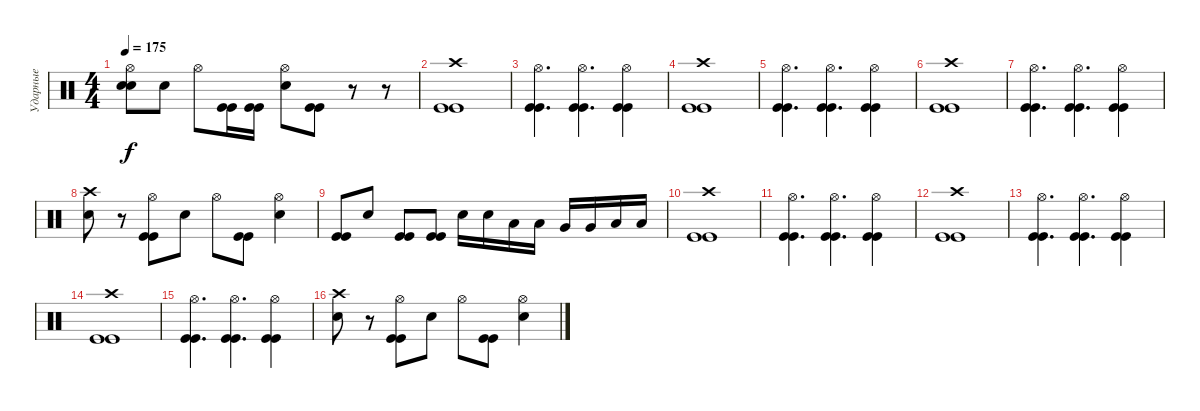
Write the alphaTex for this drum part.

\track ("Ударные" "Ударные") {instrument percussion}
\staff {score}
\articulation defaults
\ts (4 4)
\tempo 175
\clef neutral
\ks c
("Hi-Hat (open)" "Snare (hit)"{t} "Snare (hit)"{t}).8{dy f} "Snare (hit) 2".8 "Hi-Hat (open)".8 ("Kick (hit)" "Kick (hit)").16 ("Kick (hit)" "Kick (hit)").16 ("Hi-Hat (open)" "Snare (hit) 2").8 ("Kick (hit)" "Kick (hit)").8 r.8 r.8 |
("Crash high (hit)" "Kick (hit)" "Kick (hit)").1 |
("Hi-Hat (open)" "Kick (hit)" "Kick (hit)").4{d} ("Hi-Hat (open)" "Kick (hit)" "Kick (hit)").4{d} ("Hi-Hat (open)" "Kick (hit)" "Kick (hit)").4 |
("Crash high (hit)" "Kick (hit)" "Kick (hit)").1 |
("Hi-Hat (open)" "Kick (hit)" "Kick (hit)").4{d} ("Hi-Hat (open)" "Kick (hit)" "Kick (hit)").4{d} ("Hi-Hat (open)" "Kick (hit)" "Kick (hit)").4 |
("Crash high (hit)" "Kick (hit)" "Kick (hit)").1 |
("Hi-Hat (open)" "Kick (hit)" "Kick (hit)").4{d} ("Hi-Hat (open)" "Kick (hit)" "Kick (hit)").4{d} ("Hi-Hat (open)" "Kick (hit)" "Kick (hit)").4 |
("Crash high (hit)" "Snare (hit) 2").8 r.8 ("Hi-Hat (open)" "Kick (hit)" "Kick (hit)").8 "Snare (hit) 2".8 "Hi-Hat (open)".8 ("Kick (hit)" "Kick (hit)").8 ("Hi-Hat (open)" "Snare (hit) 2").4 |
("Kick (hit)" "Kick (hit)").8 "Snare (hit) 2".8 ("Kick (hit)" "Kick (hit)").8 ("Kick (hit)" "Kick (hit)").8 "Snare (hit) 2".16 "Snare (hit) 2".16 "Low Tom (hit)".16 "Low Tom (hit)".16 "Very Low Tom (hit)".16 "Very Low Tom (hit)".16 "Low Floor Tom (hit)".16 "Low Floor Tom (hit)".16 |
("Crash high (hit)" "Kick (hit)" "Kick (hit)").1 |
("Hi-Hat (open)" "Kick (hit)" "Kick (hit)").4{d} ("Hi-Hat (open)" "Kick (hit)" "Kick (hit)").4{d} ("Hi-Hat (open)" "Kick (hit)" "Kick (hit)").4 |
("Crash high (hit)" "Kick (hit)" "Kick (hit)").1 |
("Hi-Hat (open)" "Kick (hit)" "Kick (hit)").4{d} ("Hi-Hat (open)" "Kick (hit)" "Kick (hit)").4{d} ("Hi-Hat (open)" "Kick (hit)" "Kick (hit)").4 |
("Crash high (hit)" "Kick (hit)" "Kick (hit)").1 |
("Hi-Hat (open)" "Kick (hit)" "Kick (hit)").4{d} ("Hi-Hat (open)" "Kick (hit)" "Kick (hit)").4{d} ("Hi-Hat (open)" "Kick (hit)" "Kick (hit)").4 |
("Crash high (hit)" "Snare (hit) 2").8 r.8 ("Hi-Hat (open)" "Kick (hit)" "Kick (hit)").8 "Snare (hit) 2".8 "Hi-Hat (open)".8 ("Kick (hit)" "Kick (hit)").8 ("Hi-Hat (open)" "Snare (hit) 2").4
